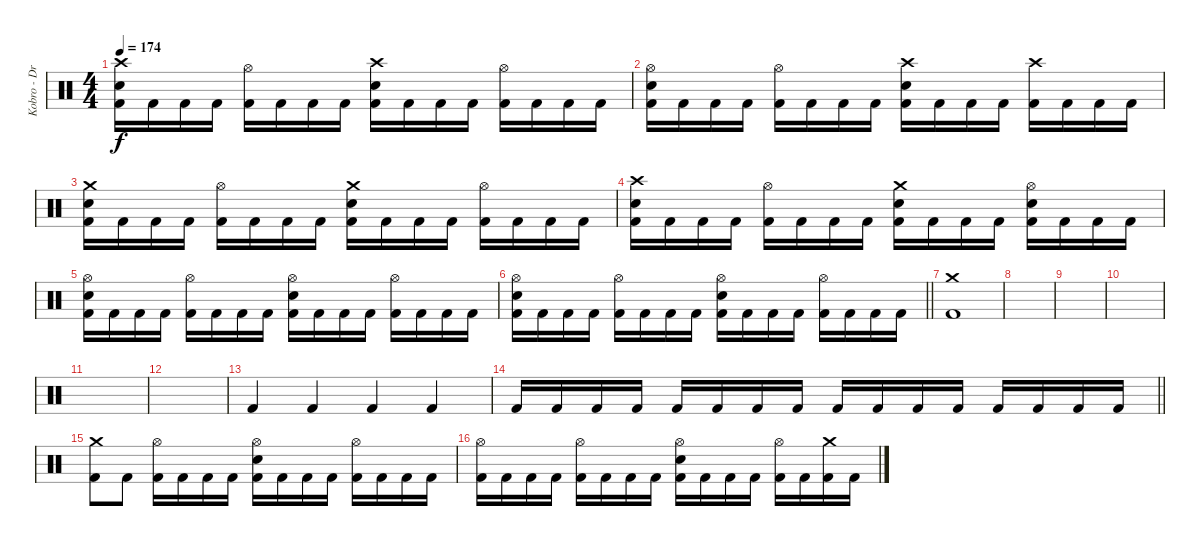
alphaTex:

\track ("Kobro - Drums + Percussion" "Kobro - Dr") {instrument percussion}
\staff {score}
\articulation defaults
\ts (4 4)
\tempo 174
\clef neutral
\ks c
("Crash high (hit)" "Electric Snare (hit)" "Kick (hit) 2").16{dy f} "Kick (hit) 2".16 "Kick (hit) 2".16 "Kick (hit) 2".16 ("Hi-Hat (open)" "Kick (hit) 2").16 "Kick (hit) 2".16 "Kick (hit) 2".16 "Kick (hit) 2".16 ("Crash high (hit)" "Electric Snare (hit)" "Kick (hit) 2").16 "Kick (hit) 2".16 "Kick (hit) 2".16 "Kick (hit) 2".16 ("Hi-Hat (open)" "Kick (hit) 2").16 "Kick (hit) 2".16 "Kick (hit) 2".16 "Kick (hit) 2".16 |
("Hi-Hat (open)" "Electric Snare (hit)" "Kick (hit) 2").16 "Kick (hit) 2".16 "Kick (hit) 2".16 "Kick (hit) 2".16 ("Hi-Hat (open)" "Kick (hit) 2").16 "Kick (hit) 2".16 "Kick (hit) 2".16 "Kick (hit) 2".16 ("Crash high (hit)" "Electric Snare (hit)" "Kick (hit) 2").16 "Kick (hit) 2".16 "Kick (hit) 2".16 "Kick (hit) 2".16 ("Crash high (hit)" "Kick (hit) 2").16 "Kick (hit) 2".16 "Kick (hit) 2".16 "Kick (hit) 2".16 |
("Crash medium (hit)" "Electric Snare (hit)" "Kick (hit) 2").16 "Kick (hit) 2".16 "Kick (hit) 2".16 "Kick (hit) 2".16 ("Hi-Hat (open)" "Kick (hit) 2").16 "Kick (hit) 2".16 "Kick (hit) 2".16 "Kick (hit) 2".16 ("Crash medium (hit)" "Electric Snare (hit)" "Kick (hit) 2").16 "Kick (hit) 2".16 "Kick (hit) 2".16 "Kick (hit) 2".16 ("Hi-Hat (open)" "Kick (hit) 2").16 "Kick (hit) 2".16 "Kick (hit) 2".16 "Kick (hit) 2".16 |
("Crash high (hit)" "Electric Snare (hit)" "Kick (hit) 2").16 "Kick (hit) 2".16 "Kick (hit) 2".16 "Kick (hit) 2".16 ("Hi-Hat (open)" "Kick (hit) 2").16 "Kick (hit) 2".16 "Kick (hit) 2".16 "Kick (hit) 2".16 ("Crash medium (hit)" "Electric Snare (hit)" "Kick (hit) 2").16 "Kick (hit) 2".16 "Kick (hit) 2".16 "Kick (hit) 2".16 ("Hi-Hat (open)" "Electric Snare (hit)" "Kick (hit) 2").16 "Kick (hit) 2".16 "Kick (hit) 2".16 "Kick (hit) 2".16 |
("Hi-Hat (open)" "Electric Snare (hit)" "Kick (hit) 2").16 "Kick (hit) 2".16 "Kick (hit) 2".16 "Kick (hit) 2".16 ("Hi-Hat (open)" "Kick (hit) 2").16 "Kick (hit) 2".16 "Kick (hit) 2".16 "Kick (hit) 2".16 ("Hi-Hat (open)" "Electric Snare (hit)" "Kick (hit) 2").16 "Kick (hit) 2".16 "Kick (hit) 2".16 "Kick (hit) 2".16 ("Hi-Hat (open)" "Kick (hit) 2").16 "Kick (hit) 2".16 "Kick (hit) 2".16 "Kick (hit) 2".16 |
\barLineRight lightlight
("Hi-Hat (open)" "Electric Snare (hit)" "Kick (hit) 2").16 "Kick (hit) 2".16 "Kick (hit) 2".16 "Kick (hit) 2".16 ("Hi-Hat (open)" "Kick (hit) 2").16 "Kick (hit) 2".16 "Kick (hit) 2".16 "Kick (hit) 2".16 ("Hi-Hat (open)" "Electric Snare (hit)" "Kick (hit) 2").16 "Kick (hit) 2".16 "Kick (hit) 2".16 "Kick (hit) 2".16 ("Hi-Hat (open)" "Kick (hit) 2").16 "Kick (hit) 2".16 "Kick (hit) 2".16 "Kick (hit) 2".16 |
("Crash medium (hit)" "Kick (hit) 2").1 |
|
|
|
|
|
"Kick (hit) 2".4 "Kick (hit) 2".4 "Kick (hit) 2".4 "Kick (hit) 2".4 |
\barLineRight lightlight "Kick (hit) 2".16 "Kick (hit) 2".16 "Kick (hit) 2".16 "Kick (hit) 2".16 "Kick (hit) 2".16 "Kick (hit) 2".16 "Kick (hit) 2".16 "Kick (hit) 2".16 "Kick (hit) 2".16 "Kick (hit) 2".16 "Kick (hit) 2".16 "Kick (hit) 2".16 "Kick (hit) 2".16 "Kick (hit) 2".16 "Kick (hit) 2".16 "Kick (hit) 2".16
|
("Crash medium (hit)" "Kick (hit) 2").8 "Kick (hit) 2".8 ("Hi-Hat (open)" "Kick (hit) 2").16 "Kick (hit) 2".16 "Kick (hit) 2".16 "Kick (hit) 2".16 ("Hi-Hat (open)" "Electric Snare (hit)" "Kick (hit) 2").16 "Kick (hit) 2".16 "Kick (hit) 2".16 "Kick (hit) 2".16 ("Hi-Hat (open)" "Kick (hit) 2").16 "Kick (hit) 2".16 "Kick (hit) 2".16 "Kick (hit) 2".16 |
("Hi-Hat (open)" "Kick (hit) 2").16 "Kick (hit) 2".16 "Kick (hit) 2".16 "Kick (hit) 2".16 ("Hi-Hat (open)" "Kick (hit) 2").16 "Kick (hit) 2".16 "Kick (hit) 2".16 "Kick (hit) 2".16 ("Hi-Hat (open)" "Electric Snare (hit)" "Kick (hit) 2").16 "Kick (hit) 2".16 "Kick (hit) 2".16 "Kick (hit) 2".16 ("Hi-Hat (open)" "Kick (hit) 2").16 "Kick (hit) 2".16 ("Crash medium (hit)" "Kick (hit) 2").16 "Kick (hit) 2".16
